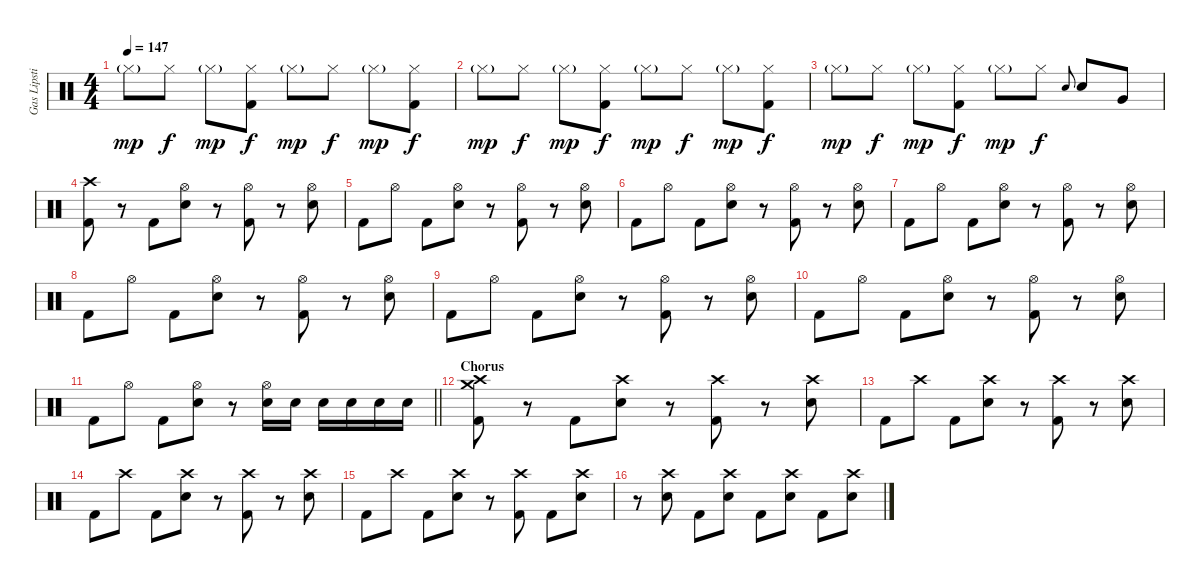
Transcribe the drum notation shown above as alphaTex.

\track ("Gas Lipstick (Drums)" "Gas Lipsti") {instrument percussion}
\staff {score}
\articulation defaults
\ts (4 4)
\tempo 147
\clef neutral
\ks c "Hi-Hat (closed)"{g}.8{dy mp} "Hi-Hat (closed)".8{dy f} "Hi-Hat (closed)"{g}.8{dy mp}
("Hi-Hat (closed)" "Kick (hit) 2").8{dy f} "Hi-Hat (closed)"{g}.8{dy mp} "Hi-Hat (closed)".8{dy f} "Hi-Hat (closed)"{g}.8{dy mp} ("Hi-Hat (closed)" "Kick (hit) 2").8{dy f} |
"Hi-Hat (closed)"{g}.8{dy mp} "Hi-Hat (closed)".8{dy f} "Hi-Hat (closed)"{g}.8{dy mp} ("Hi-Hat (closed)" "Kick (hit) 2").8{dy f} "Hi-Hat (closed)"{g}.8{dy mp} "Hi-Hat (closed)".8{dy f} "Hi-Hat (closed)"{g}.8{dy mp} ("Hi-Hat (closed)" "Kick (hit) 2").8{dy f} |
"Hi-Hat (closed)"{g}.8{dy mp} "Hi-Hat (closed)".8{dy f} "Hi-Hat (closed)"{g}.8{dy mp} ("Hi-Hat (closed)" "Kick (hit) 2").8{dy f} "Hi-Hat (closed)"{g}.8{dy mp} "Hi-Hat (closed)".8{dy f} "Snare (hit) 2".8{gr onbeat} "Snare (hit) 2".8 "Very Low Tom (hit)".8 |
("Crash high (hit)" "Kick (hit) 2").8 r.8 "Kick (hit) 2".8 ("Hi-Hat (open)" "Snare (hit) 2").8 r.8 ("Hi-Hat (open)" "Kick (hit) 2").8 r.8 ("Hi-Hat (open)" "Snare (hit) 2").8 |
"Kick (hit) 2".8 "Hi-Hat (open)".8 "Kick (hit) 2".8 ("Hi-Hat (open)" "Snare (hit) 2").8 r.8 ("Hi-Hat (open)" "Kick (hit) 2").8 r.8 ("Hi-Hat (open)" "Snare (hit) 2").8 |
"Kick (hit) 2".8 "Hi-Hat (open)".8 "Kick (hit) 2".8 ("Hi-Hat (open)" "Snare (hit) 2").8 r.8 ("Hi-Hat (open)" "Kick (hit) 2").8 r.8 ("Hi-Hat (open)" "Snare (hit) 2").8 |
"Kick (hit) 2".8 "Hi-Hat (open)".8 "Kick (hit) 2".8 ("Hi-Hat (open)" "Snare (hit) 2").8 r.8 ("Hi-Hat (open)" "Kick (hit) 2").8 r.8 ("Hi-Hat (open)" "Snare (hit) 2").8 |
"Kick (hit) 2".8 "Hi-Hat (open)".8 "Kick (hit) 2".8 ("Hi-Hat (open)" "Snare (hit) 2").8 r.8 ("Hi-Hat (open)" "Kick (hit) 2").8 r.8 ("Hi-Hat (open)" "Snare (hit) 2").8 |
"Kick (hit) 2".8 "Hi-Hat (open)".8 "Kick (hit) 2".8 ("Hi-Hat (open)" "Snare (hit) 2").8 r.8 ("Hi-Hat (open)" "Kick (hit) 2").8 r.8 ("Hi-Hat (open)" "Snare (hit) 2").8 |
"Kick (hit) 2".8 "Hi-Hat (open)".8 "Kick (hit) 2".8 ("Hi-Hat (open)" "Snare (hit) 2").8 r.8 ("Hi-Hat (open)" "Kick (hit) 2").8 r.8 ("Hi-Hat (open)" "Snare (hit) 2").8 |
\barLineRight lightlight "Kick (hit) 2".8 "Hi-Hat (open)".8 "Kick (hit) 2".8
("Hi-Hat (open)" "Snare (hit) 2").8 r.8 ("Hi-Hat (open)" "Snare (hit) 2").16 "Snare (hit) 2".16 "Snare (hit) 2".16 "Snare (hit) 2".16 "Snare (hit) 2".16 "Snare (hit) 2".16 |
\section ("" "Chorus")
("Crash medium (hit)" "Crash high (hit)" "Kick (hit) 2").8 r.8 "Kick (hit) 2".8 ("Crash high (hit)" "Snare (hit) 2").8 r.8 ("Crash high (hit)" "Kick (hit) 2").8 r.8 ("Crash high (hit)" "Snare (hit) 2").8 |
"Kick (hit) 2".8 "Crash high (hit)".8 "Kick (hit) 2".8 ("Crash high (hit)" "Snare (hit) 2").8 r.8 ("Crash high (hit)" "Kick (hit) 2").8 r.8 ("Crash high (hit)" "Snare (hit) 2").8 |
"Kick (hit) 2".8 "Crash high (hit)".8 "Kick (hit) 2".8 ("Crash high (hit)" "Snare (hit) 2").8 r.8 ("Crash high (hit)" "Kick (hit) 2").8 r.8 ("Crash high (hit)" "Snare (hit) 2").8 |
"Kick (hit) 2".8 "Crash high (hit)".8 "Kick (hit) 2".8 ("Crash high (hit)" "Snare (hit) 2").8 r.8 ("Crash high (hit)" "Kick (hit) 2").8 "Kick (hit) 2".8 ("Crash high (hit)" "Snare (hit) 2").8 |
r.8 ("Crash high (hit)" "Snare (hit) 2").8 "Kick (hit) 2".8 ("Crash high (hit)" "Snare (hit) 2").8 "Kick (hit) 2".8 ("Crash high (hit)" "Snare (hit) 2").8 "Kick (hit) 2".8 ("Crash high (hit)" "Snare (hit) 2").8
